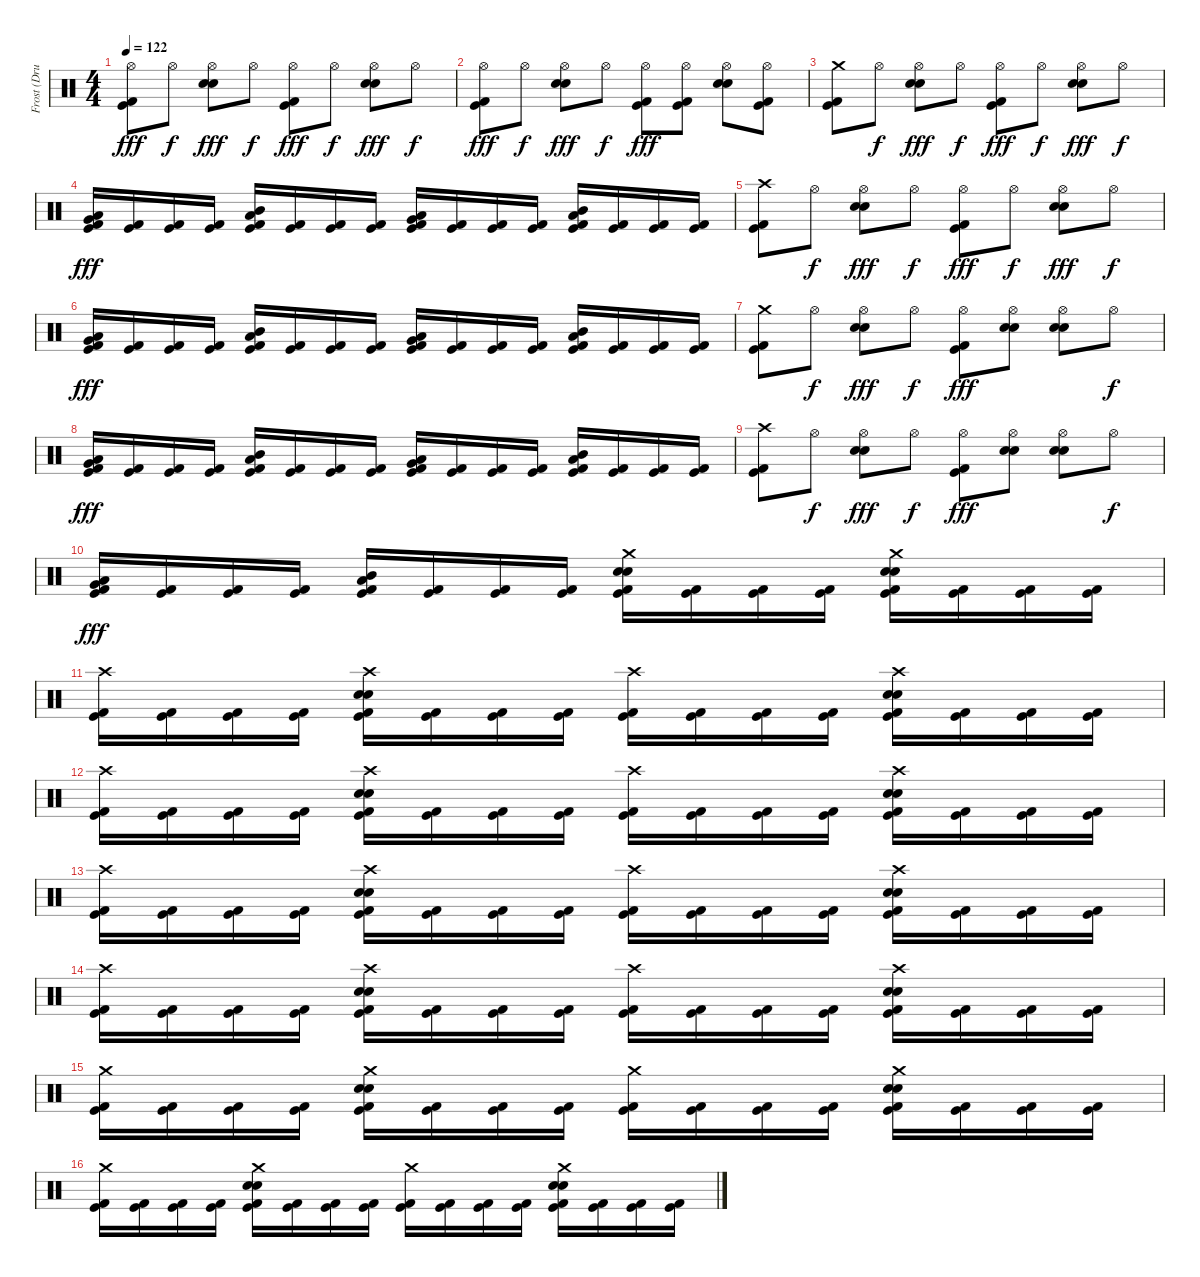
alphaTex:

\track ("Frost (Drums)" "Frost (Dru") {instrument percussion}
\staff {score}
\articulation defaults
\ts (4 4)
\tempo 122
\clef neutral
\ks c
("Hi-Hat (open)" "Kick (hit)" "Kick (hit) 2").8{dy fff} "Hi-Hat (open)".8{dy f} ("Hi-Hat (open)" "Snare (hit) 2" "Electric Snare (hit)").8{dy fff} "Hi-Hat (open)".8{dy f} ("Hi-Hat (open)" "Kick (hit)" "Kick (hit) 2").8{dy fff} "Hi-Hat (open)".8{dy f} ("Hi-Hat (open)" "Snare (hit) 2" "Electric Snare (hit)").8{dy fff} "Hi-Hat (open)".8{dy f} |
("Hi-Hat (open)" "Kick (hit)" "Kick (hit) 2").8{dy fff} "Hi-Hat (open)".8{dy f} ("Hi-Hat (open)" "Snare (hit) 2" "Electric Snare (hit)").8{dy fff} "Hi-Hat (open)".8{dy f} ("Hi-Hat (open)" "Kick (hit)" "Kick (hit) 2").8{dy fff} ("Hi-Hat (open)" "Kick (hit)" "Kick (hit) 2").8 ("Hi-Hat (open)" "Snare (hit) 2" "Electric Snare (hit)").8 ("Hi-Hat (open)" "Kick (hit)" "Kick (hit) 2").8 |
("Crash medium (hit)" "Kick (hit)" "Kick (hit) 2").8 "Hi-Hat (open)".8{dy f} ("Hi-Hat (open)" "Snare (hit) 2" "Electric Snare (hit)").8{dy fff} "Hi-Hat (open)".8{dy f} ("Hi-Hat (open)" "Kick (hit)" "Kick (hit) 2").8{dy fff} "Hi-Hat (open)".8{dy f} ("Hi-Hat (open)" "Snare (hit) 2" "Electric Snare (hit)").8{dy fff} "Hi-Hat (open)".8{dy f} |
("Low Tom (hit)" "Very Low Tom (hit)" "Kick (hit)" "Kick (hit) 2").16{dy fff} ("Kick (hit)" "Kick (hit) 2").16 ("Kick (hit)" "Kick (hit) 2").16 ("Kick (hit)" "Kick (hit) 2").16 ("Mid Tom (hit)" "Low Tom (hit)" "Kick (hit)" "Kick (hit) 2").16 ("Kick (hit)" "Kick (hit) 2").16 ("Kick (hit)" "Kick (hit) 2").16 ("Kick (hit)" "Kick (hit) 2").16 ("Low Tom (hit)" "Very Low Tom (hit)" "Kick (hit)" "Kick (hit) 2").16 ("Kick (hit)" "Kick (hit) 2").16 ("Kick (hit)" "Kick (hit) 2").16 ("Kick (hit)" "Kick (hit) 2").16 ("Mid Tom (hit)" "Low Tom (hit)" "Kick (hit)" "Kick (hit) 2").16 ("Kick (hit)" "Kick (hit) 2").16 ("Kick (hit)" "Kick (hit) 2").16 ("Kick (hit)" "Kick (hit) 2").16 |
("Crash high (hit)" "Kick (hit)" "Kick (hit) 2").8 "Hi-Hat (open)".8{dy f} ("Hi-Hat (open)" "Snare (hit) 2" "Electric Snare (hit)").8{dy fff} "Hi-Hat (open)".8{dy f} ("Hi-Hat (open)" "Kick (hit)" "Kick (hit) 2").8{dy fff} "Hi-Hat (open)".8{dy f} ("Hi-Hat (open)" "Snare (hit) 2" "Electric Snare (hit)").8{dy fff} "Hi-Hat (open)".8{dy f} |
("Low Tom (hit)" "Very Low Tom (hit)" "Kick (hit)" "Kick (hit) 2").16{dy fff} ("Kick (hit)" "Kick (hit) 2").16 ("Kick (hit)" "Kick (hit) 2").16 ("Kick (hit)" "Kick (hit) 2").16 ("Mid Tom (hit)" "Low Tom (hit)" "Kick (hit)" "Kick (hit) 2").16 ("Kick (hit)" "Kick (hit) 2").16 ("Kick (hit)" "Kick (hit) 2").16 ("Kick (hit)" "Kick (hit) 2").16 ("Low Tom (hit)" "Very Low Tom (hit)" "Kick (hit)" "Kick (hit) 2").16 ("Kick (hit)" "Kick (hit) 2").16 ("Kick (hit)" "Kick (hit) 2").16 ("Kick (hit)" "Kick (hit) 2").16 ("Mid Tom (hit)" "Low Tom (hit)" "Kick (hit)" "Kick (hit) 2").16 ("Kick (hit)" "Kick (hit) 2").16 ("Kick (hit)" "Kick (hit) 2").16 ("Kick (hit)" "Kick (hit) 2").16 |
("Crash medium (hit)" "Kick (hit)" "Kick (hit) 2").8 "Hi-Hat (open)".8{dy f} ("Hi-Hat (open)" "Snare (hit) 2" "Electric Snare (hit)").8{dy fff} "Hi-Hat (open)".8{dy f} ("Hi-Hat (open)" "Kick (hit)" "Kick (hit) 2").8{dy fff} ("Hi-Hat (open)" "Snare (hit) 2" "Electric Snare (hit)").8 ("Hi-Hat (open)" "Snare (hit) 2" "Electric Snare (hit)").8 "Hi-Hat (open)".8{dy f} |
("Low Tom (hit)" "Very Low Tom (hit)" "Kick (hit)" "Kick (hit) 2").16{dy fff} ("Kick (hit)" "Kick (hit) 2").16 ("Kick (hit)" "Kick (hit) 2").16 ("Kick (hit)" "Kick (hit) 2").16 ("Mid Tom (hit)" "Low Tom (hit)" "Kick (hit)" "Kick (hit) 2").16 ("Kick (hit)" "Kick (hit) 2").16 ("Kick (hit)" "Kick (hit) 2").16 ("Kick (hit)" "Kick (hit) 2").16 ("Low Tom (hit)" "Very Low Tom (hit)" "Kick (hit)" "Kick (hit) 2").16 ("Kick (hit)" "Kick (hit) 2").16 ("Kick (hit)" "Kick (hit) 2").16 ("Kick (hit)" "Kick (hit) 2").16 ("Mid Tom (hit)" "Low Tom (hit)" "Kick (hit)" "Kick (hit) 2").16 ("Kick (hit)" "Kick (hit) 2").16 ("Kick (hit)" "Kick (hit) 2").16 ("Kick (hit)" "Kick (hit) 2").16 |
("Crash high (hit)" "Kick (hit)" "Kick (hit) 2").8 "Hi-Hat (open)".8{dy f} ("Hi-Hat (open)" "Snare (hit) 2" "Electric Snare (hit)").8{dy fff} "Hi-Hat (open)".8{dy f} ("Hi-Hat (open)" "Kick (hit)" "Kick (hit) 2").8{dy fff} ("Hi-Hat (open)" "Snare (hit) 2" "Electric Snare (hit)").8 ("Hi-Hat (open)" "Snare (hit) 2" "Electric Snare (hit)").8 "Hi-Hat (open)".8{dy f} |
("Low Tom (hit)" "Very Low Tom (hit)" "Kick (hit)" "Kick (hit) 2").16{dy fff} ("Kick (hit)" "Kick (hit) 2").16 ("Kick (hit)" "Kick (hit) 2").16 ("Kick (hit)" "Kick (hit) 2").16 ("Mid Tom (hit)" "Low Tom (hit)" "Kick (hit)" "Kick (hit) 2").16 ("Kick (hit)" "Kick (hit) 2").16 ("Kick (hit)" "Kick (hit) 2").16 ("Kick (hit)" "Kick (hit) 2").16 ("Crash medium (hit)" "Snare (hit) 2" "Electric Snare (hit)" "Kick (hit)" "Kick (hit) 2").16 ("Kick (hit)" "Kick (hit) 2").16 ("Kick (hit)" "Kick (hit) 2").16 ("Kick (hit)" "Kick (hit) 2").16 ("Crash medium (hit)" "Snare (hit) 2" "Electric Snare (hit)" "Kick (hit)" "Kick (hit) 2").16 ("Kick (hit)" "Kick (hit) 2").16 ("Kick (hit)" "Kick (hit) 2").16 ("Kick (hit)" "Kick (hit) 2").16 |
("Crash high (hit)" "Kick (hit)" "Kick (hit) 2").16 ("Kick (hit)" "Kick (hit) 2").16 ("Kick (hit)" "Kick (hit) 2").16 ("Kick (hit)" "Kick (hit) 2").16 ("Crash high (hit)" "Snare (hit) 2" "Electric Snare (hit)" "Kick (hit)" "Kick (hit) 2").16 ("Kick (hit)" "Kick (hit) 2").16 ("Kick (hit)" "Kick (hit) 2").16 ("Kick (hit)" "Kick (hit) 2").16 ("Crash high (hit)" "Kick (hit)" "Kick (hit) 2").16 ("Kick (hit)" "Kick (hit) 2").16 ("Kick (hit)" "Kick (hit) 2").16 ("Kick (hit)" "Kick (hit) 2").16 ("Crash high (hit)" "Snare (hit) 2" "Electric Snare (hit)" "Kick (hit)" "Kick (hit) 2").16 ("Kick (hit)" "Kick (hit) 2").16 ("Kick (hit)" "Kick (hit) 2").16 ("Kick (hit)" "Kick (hit) 2").16 |
("Crash high (hit)" "Kick (hit)" "Kick (hit) 2").16 ("Kick (hit)" "Kick (hit) 2").16 ("Kick (hit)" "Kick (hit) 2").16 ("Kick (hit)" "Kick (hit) 2").16 ("Crash high (hit)" "Snare (hit) 2" "Electric Snare (hit)" "Kick (hit)" "Kick (hit) 2").16 ("Kick (hit)" "Kick (hit) 2").16 ("Kick (hit)" "Kick (hit) 2").16 ("Kick (hit)" "Kick (hit) 2").16 ("Crash high (hit)" "Kick (hit)" "Kick (hit) 2").16 ("Kick (hit)" "Kick (hit) 2").16 ("Kick (hit)" "Kick (hit) 2").16 ("Kick (hit)" "Kick (hit) 2").16 ("Crash high (hit)" "Snare (hit) 2" "Electric Snare (hit)" "Kick (hit)" "Kick (hit) 2").16 ("Kick (hit)" "Kick (hit) 2").16 ("Kick (hit)" "Kick (hit) 2").16 ("Kick (hit)" "Kick (hit) 2").16 |
("Crash high (hit)" "Kick (hit)" "Kick (hit) 2").16 ("Kick (hit)" "Kick (hit) 2").16 ("Kick (hit)" "Kick (hit) 2").16 ("Kick (hit)" "Kick (hit) 2").16 ("Crash high (hit)" "Snare (hit) 2" "Electric Snare (hit)" "Kick (hit)" "Kick (hit) 2").16 ("Kick (hit)" "Kick (hit) 2").16 ("Kick (hit)" "Kick (hit) 2").16 ("Kick (hit)" "Kick (hit) 2").16 ("Crash high (hit)" "Kick (hit)" "Kick (hit) 2").16 ("Kick (hit)" "Kick (hit) 2").16 ("Kick (hit)" "Kick (hit) 2").16 ("Kick (hit)" "Kick (hit) 2").16 ("Crash high (hit)" "Snare (hit) 2" "Electric Snare (hit)" "Kick (hit)" "Kick (hit) 2").16 ("Kick (hit)" "Kick (hit) 2").16 ("Kick (hit)" "Kick (hit) 2").16 ("Kick (hit)" "Kick (hit) 2").16 |
("Crash high (hit)" "Kick (hit)" "Kick (hit) 2").16 ("Kick (hit)" "Kick (hit) 2").16 ("Kick (hit)" "Kick (hit) 2").16 ("Kick (hit)" "Kick (hit) 2").16 ("Crash high (hit)" "Snare (hit) 2" "Electric Snare (hit)" "Kick (hit)" "Kick (hit) 2").16 ("Kick (hit)" "Kick (hit) 2").16 ("Kick (hit)" "Kick (hit) 2").16 ("Kick (hit)" "Kick (hit) 2").16 ("Crash high (hit)" "Kick (hit)" "Kick (hit) 2").16 ("Kick (hit)" "Kick (hit) 2").16 ("Kick (hit)" "Kick (hit) 2").16 ("Kick (hit)" "Kick (hit) 2").16 ("Crash high (hit)" "Snare (hit) 2" "Electric Snare (hit)" "Kick (hit)" "Kick (hit) 2").16 ("Kick (hit)" "Kick (hit) 2").16 ("Kick (hit)" "Kick (hit) 2").16 ("Kick (hit)" "Kick (hit) 2").16 |
("Crash medium (hit)" "Kick (hit)" "Kick (hit) 2").16 ("Kick (hit)" "Kick (hit) 2").16 ("Kick (hit)" "Kick (hit) 2").16 ("Kick (hit)" "Kick (hit) 2").16 ("Crash medium (hit)" "Snare (hit) 2" "Electric Snare (hit)" "Kick (hit)" "Kick (hit) 2").16 ("Kick (hit)" "Kick (hit) 2").16 ("Kick (hit)" "Kick (hit) 2").16 ("Kick (hit)" "Kick (hit) 2").16 ("Crash medium (hit)" "Kick (hit)" "Kick (hit) 2").16 ("Kick (hit)" "Kick (hit) 2").16 ("Kick (hit)" "Kick (hit) 2").16 ("Kick (hit)" "Kick (hit) 2").16 ("Crash medium (hit)" "Snare (hit) 2" "Electric Snare (hit)" "Kick (hit)" "Kick (hit) 2").16 ("Kick (hit)" "Kick (hit) 2").16 ("Kick (hit)" "Kick (hit) 2").16 ("Kick (hit)" "Kick (hit) 2").16 |
("Crash medium (hit)" "Kick (hit)" "Kick (hit) 2").16 ("Kick (hit)" "Kick (hit) 2").16 ("Kick (hit)" "Kick (hit) 2").16 ("Kick (hit)" "Kick (hit) 2").16 ("Crash medium (hit)" "Snare (hit) 2" "Electric Snare (hit)" "Kick (hit)" "Kick (hit) 2").16 ("Kick (hit)" "Kick (hit) 2").16 ("Kick (hit)" "Kick (hit) 2").16 ("Kick (hit)" "Kick (hit) 2").16 ("Crash medium (hit)" "Kick (hit)" "Kick (hit) 2").16 ("Kick (hit)" "Kick (hit) 2").16 ("Kick (hit)" "Kick (hit) 2").16 ("Kick (hit)" "Kick (hit) 2").16 ("Crash medium (hit)" "Snare (hit) 2" "Electric Snare (hit)" "Kick (hit)" "Kick (hit) 2").16 ("Kick (hit)" "Kick (hit) 2").16 ("Kick (hit)" "Kick (hit) 2").16 ("Kick (hit)" "Kick (hit) 2").16
